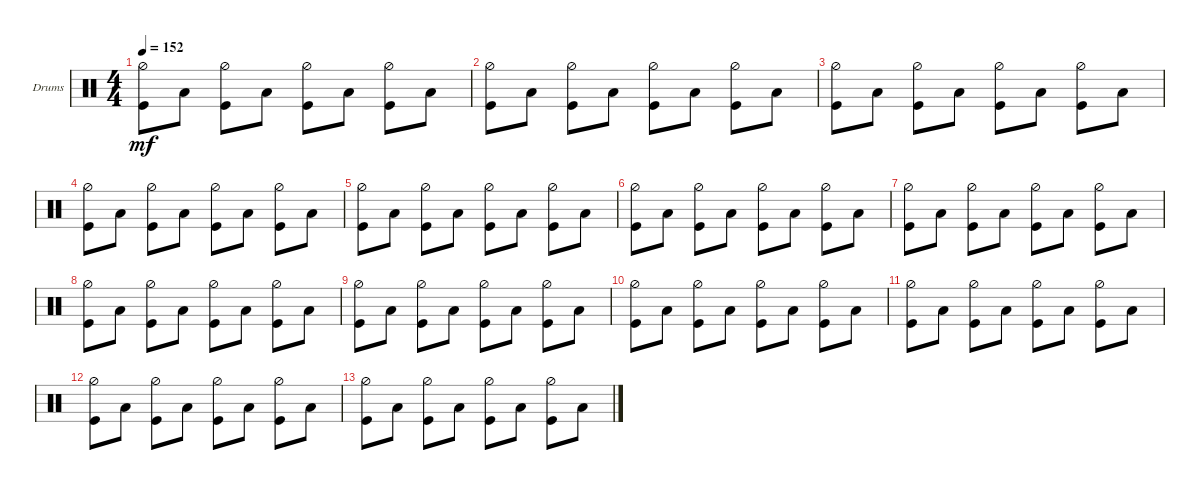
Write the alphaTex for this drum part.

\defaultSystemsLayout 4
\bracketExtendMode groupsimilarinstruments
\firstSystemTrackNameOrientation horizontal
\otherSystemsTrackNameOrientation horizontal
\track ("Dre Drum" "Drums") {instrument percussion}
\staff {score}
\articulation defaults
\ts (4 4)
\tempo 152
\clef neutral
\ks c
("Kick (hit)" "Hi-Hat (half)").8{dy mf} "Low Tom (hit)".8 ("Kick (hit)" "Hi-Hat (half)").8 "Low Tom (hit)".8 ("Kick (hit)" "Hi-Hat (half)").8 "Low Tom (hit)".8 ("Kick (hit)" "Hi-Hat (half)").8 "Low Tom (hit)".8 |
("Kick (hit)" "Hi-Hat (half)").8 "Low Tom (hit)".8 ("Kick (hit)" "Hi-Hat (half)").8 "Low Tom (hit)".8 ("Kick (hit)" "Hi-Hat (half)").8 "Low Tom (hit)".8 ("Kick (hit)" "Hi-Hat (half)").8 "Low Tom (hit)".8 |
("Kick (hit)" "Hi-Hat (half)").8 "Low Tom (hit)".8 ("Kick (hit)" "Hi-Hat (half)").8 "Low Tom (hit)".8 ("Kick (hit)" "Hi-Hat (half)").8 "Low Tom (hit)".8 ("Kick (hit)" "Hi-Hat (half)").8 "Low Tom (hit)".8 |
("Kick (hit)" "Hi-Hat (half)").8 "Low Tom (hit)".8 ("Kick (hit)" "Hi-Hat (half)").8 "Low Tom (hit)".8 ("Kick (hit)" "Hi-Hat (half)").8 "Low Tom (hit)".8 ("Kick (hit)" "Hi-Hat (half)").8 "Low Tom (hit)".8 |
("Kick (hit)" "Hi-Hat (half)").8 "Low Tom (hit)".8 ("Kick (hit)" "Hi-Hat (half)").8 "Low Tom (hit)".8 ("Kick (hit)" "Hi-Hat (half)").8 "Low Tom (hit)".8 ("Kick (hit)" "Hi-Hat (half)").8 "Low Tom (hit)".8 |
("Kick (hit)" "Hi-Hat (half)").8 "Low Tom (hit)".8 ("Kick (hit)" "Hi-Hat (half)").8 "Low Tom (hit)".8 ("Kick (hit)" "Hi-Hat (half)").8 "Low Tom (hit)".8 ("Kick (hit)" "Hi-Hat (half)").8 "Low Tom (hit)".8 |
("Kick (hit)" "Hi-Hat (half)").8 "Low Tom (hit)".8 ("Kick (hit)" "Hi-Hat (half)").8 "Low Tom (hit)".8 ("Kick (hit)" "Hi-Hat (half)").8 "Low Tom (hit)".8 ("Kick (hit)" "Hi-Hat (half)").8 "Low Tom (hit)".8 |
("Kick (hit)" "Hi-Hat (half)").8 "Low Tom (hit)".8 ("Kick (hit)" "Hi-Hat (half)").8 "Low Tom (hit)".8 ("Kick (hit)" "Hi-Hat (half)").8 "Low Tom (hit)".8 ("Kick (hit)" "Hi-Hat (half)").8 "Low Tom (hit)".8 |
("Kick (hit)" "Hi-Hat (half)").8 "Low Tom (hit)".8 ("Kick (hit)" "Hi-Hat (half)").8 "Low Tom (hit)".8 ("Kick (hit)" "Hi-Hat (half)").8 "Low Tom (hit)".8 ("Kick (hit)" "Hi-Hat (half)").8 "Low Tom (hit)".8 |
("Kick (hit)" "Hi-Hat (half)").8 "Low Tom (hit)".8 ("Kick (hit)" "Hi-Hat (half)").8 "Low Tom (hit)".8 ("Kick (hit)" "Hi-Hat (half)").8 "Low Tom (hit)".8 ("Kick (hit)" "Hi-Hat (half)").8 "Low Tom (hit)".8 |
("Kick (hit)" "Hi-Hat (half)").8 "Low Tom (hit)".8 ("Kick (hit)" "Hi-Hat (half)").8 "Low Tom (hit)".8 ("Kick (hit)" "Hi-Hat (half)").8 "Low Tom (hit)".8 ("Kick (hit)" "Hi-Hat (half)").8 "Low Tom (hit)".8 |
("Kick (hit)" "Hi-Hat (half)").8 "Low Tom (hit)".8 ("Kick (hit)" "Hi-Hat (half)").8 "Low Tom (hit)".8 ("Kick (hit)" "Hi-Hat (half)").8 "Low Tom (hit)".8 ("Kick (hit)" "Hi-Hat (half)").8 "Low Tom (hit)".8 |
("Kick (hit)" "Hi-Hat (half)").8 "Low Tom (hit)".8 ("Kick (hit)" "Hi-Hat (half)").8 "Low Tom (hit)".8 ("Kick (hit)" "Hi-Hat (half)").8 "Low Tom (hit)".8 ("Kick (hit)" "Hi-Hat (half)").8 "Low Tom (hit)".8
